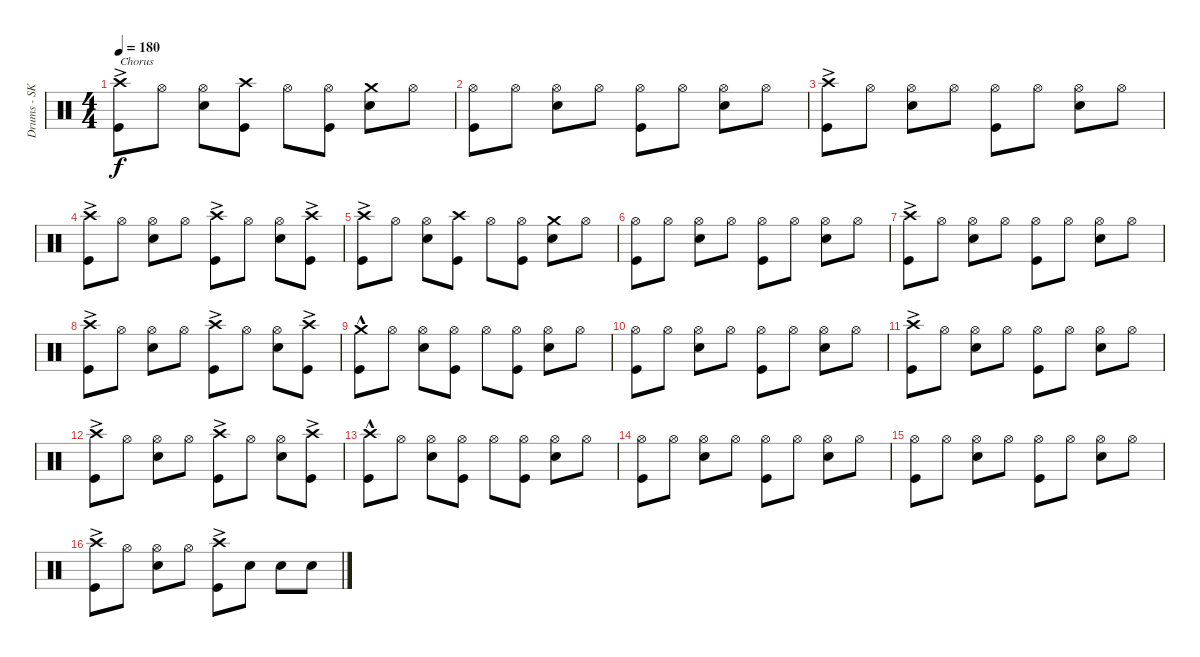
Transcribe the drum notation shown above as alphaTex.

\track ("Drums - SK" "Drums - SK") {instrument percussion}
\staff {score}
\articulation defaults
\ts (4 4)
\tempo 180
\clef neutral
\ks c
("Crash high (hit)"{ac} "Kick (hit)"{ac}).8{txt "Chorus" dy f} "Hi-Hat (open)".8 ("Hi-Hat (open)" "Snare (hit) 2").8 ("Kick (hit)" "Crash high (hit)").8 "Hi-Hat (open)".8 ("Kick (hit)" "Hi-Hat (open)").8 ("Snare (hit) 2" "Crash medium (hit)").8 "Hi-Hat (open)".8 |
("Hi-Hat (open)" "Kick (hit)").8 "Hi-Hat (open)".8 ("Hi-Hat (open)" "Snare (hit) 2").8 "Hi-Hat (open)".8 ("Hi-Hat (open)" "Kick (hit)").8 "Hi-Hat (open)".8 ("Hi-Hat (open)" "Snare (hit) 2").8 "Hi-Hat (open)".8 |
("Kick (hit)"{ac} "Crash high (hit)"{ac}).8 "Hi-Hat (open)".8 ("Hi-Hat (open)" "Snare (hit) 2").8 "Hi-Hat (open)".8 ("Hi-Hat (open)" "Kick (hit)").8 "Hi-Hat (open)".8 ("Hi-Hat (open)" "Snare (hit) 2").8 "Hi-Hat (open)".8 |
("Kick (hit)"{ac} "Crash high (hit)"{ac}).8 "Hi-Hat (open)".8 ("Hi-Hat (open)" "Snare (hit) 2").8 "Hi-Hat (open)".8 ("Kick (hit)"{ac} "Crash high (hit)"{ac}).8 "Hi-Hat (open)".8 ("Hi-Hat (open)" "Snare (hit) 2").8 ("Kick (hit)"{ac} "Crash high (hit)"{ac}).8 |
("Crash high (hit)"{ac} "Kick (hit)"{ac}).8 "Hi-Hat (open)".8 ("Hi-Hat (open)" "Snare (hit) 2").8 ("Kick (hit)" "Crash high (hit)").8 "Hi-Hat (open)".8 ("Kick (hit)" "Hi-Hat (open)").8 ("Snare (hit) 2" "Crash medium (hit)").8 "Hi-Hat (open)".8 |
("Hi-Hat (open)" "Kick (hit)").8 "Hi-Hat (open)".8 ("Hi-Hat (open)" "Snare (hit) 2").8 "Hi-Hat (open)".8 ("Hi-Hat (open)" "Kick (hit)").8 "Hi-Hat (open)".8 ("Hi-Hat (open)" "Snare (hit) 2").8 "Hi-Hat (open)".8 |
("Kick (hit)"{ac} "Crash high (hit)"{ac}).8 "Hi-Hat (open)".8 ("Hi-Hat (open)" "Snare (hit) 2").8 "Hi-Hat (open)".8 ("Hi-Hat (open)" "Kick (hit)").8 "Hi-Hat (open)".8 ("Hi-Hat (open)" "Snare (hit) 2").8 "Hi-Hat (open)".8 |
("Kick (hit)"{ac} "Crash high (hit)"{ac}).8 "Hi-Hat (open)".8 ("Hi-Hat (open)" "Snare (hit) 2").8 "Hi-Hat (open)".8 ("Kick (hit)"{ac} "Crash high (hit)"{ac}).8 "Hi-Hat (open)".8 ("Hi-Hat (open)" "Snare (hit) 2").8 ("Kick (hit)"{ac} "Crash high (hit)"{ac}).8 |
("Kick (hit)"{hac} "Crash medium (hit)"{hac}).8 "Hi-Hat (open)".8 ("Hi-Hat (open)" "Snare (hit) 2").8 ("Kick (hit)" "Hi-Hat (open)").8 "Hi-Hat (open)".8 ("Kick (hit)" "Hi-Hat (open)").8 ("Hi-Hat (open)" "Snare (hit) 2").8 "Hi-Hat (open)".8 |
("Hi-Hat (open)" "Kick (hit)").8 "Hi-Hat (open)".8 ("Hi-Hat (open)" "Snare (hit) 2").8 "Hi-Hat (open)".8 ("Hi-Hat (open)" "Kick (hit)").8 "Hi-Hat (open)".8 ("Hi-Hat (open)" "Snare (hit) 2").8 "Hi-Hat (open)".8 |
("Kick (hit)"{ac} "Crash high (hit)"{ac}).8 "Hi-Hat (open)".8 ("Hi-Hat (open)" "Snare (hit) 2").8 "Hi-Hat (open)".8 ("Hi-Hat (open)" "Kick (hit)").8 "Hi-Hat (open)".8 ("Hi-Hat (open)" "Snare (hit) 2").8 "Hi-Hat (open)".8 |
("Kick (hit)"{ac} "Crash high (hit)"{ac}).8 "Hi-Hat (open)".8 ("Hi-Hat (open)" "Snare (hit) 2").8 "Hi-Hat (open)".8 ("Kick (hit)"{ac} "Crash high (hit)"{ac}).8 "Hi-Hat (open)".8 ("Hi-Hat (open)" "Snare (hit) 2").8 ("Kick (hit)"{ac} "Crash high (hit)"{ac}).8 |
("Crash high (hit)"{hac} "Kick (hit)"{hac}).8 "Hi-Hat (open)".8 ("Hi-Hat (open)" "Snare (hit) 2").8 ("Kick (hit)" "Hi-Hat (open)").8 "Hi-Hat (open)".8 ("Kick (hit)" "Hi-Hat (open)").8 ("Hi-Hat (open)" "Snare (hit) 2").8 "Hi-Hat (open)".8 |
("Hi-Hat (open)" "Kick (hit)").8 "Hi-Hat (open)".8 ("Hi-Hat (open)" "Snare (hit) 2").8 "Hi-Hat (open)".8 ("Hi-Hat (open)" "Kick (hit)").8 "Hi-Hat (open)".8 ("Hi-Hat (open)" "Snare (hit) 2").8 "Hi-Hat (open)".8 |
("Hi-Hat (open)" "Kick (hit)").8 "Hi-Hat (open)".8 ("Hi-Hat (open)" "Snare (hit) 2").8 "Hi-Hat (open)".8 ("Hi-Hat (open)" "Kick (hit)").8 "Hi-Hat (open)".8 ("Hi-Hat (open)" "Snare (hit) 2").8 "Hi-Hat (open)".8 |
("Kick (hit)"{ac} "Crash high (hit)"{ac}).8 "Hi-Hat (open)".8 ("Hi-Hat (open)" "Snare (hit) 2").8 "Hi-Hat (open)".8 ("Kick (hit)"{ac} "Crash high (hit)"{ac}).8 "Snare (hit) 2".8 "Snare (hit) 2".8 "Snare (hit) 2".8
